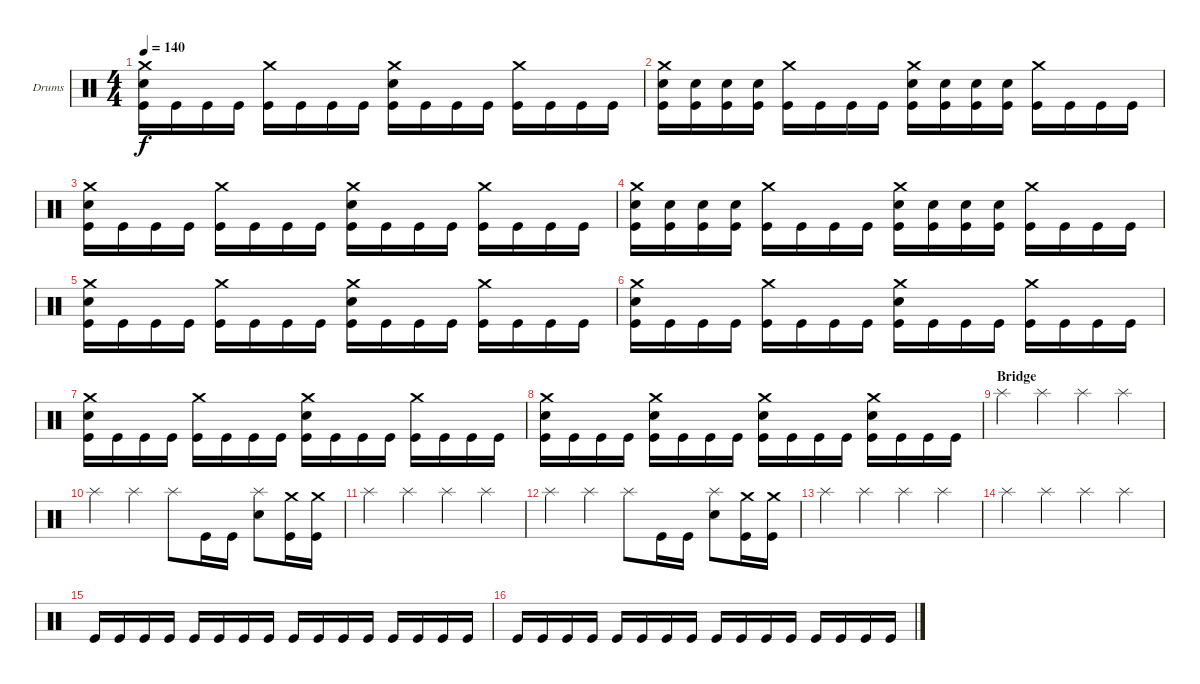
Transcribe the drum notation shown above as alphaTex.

\defaultSystemsLayout 4
\bracketExtendMode groupsimilarinstruments
\firstSystemTrackNameOrientation horizontal
\otherSystemsTrackNameOrientation horizontal
\track ("Ventor" "Drums") {instrument percussion}
\staff {score}
\articulation defaults
\ts (4 4)
\tempo 140
\clef neutral
\scale
0.5
\ks c
("Kick (hit)" "Snare (hit) 2" "Crash medium (hit)").16{dy f} "Kick (hit)".16 "Kick (hit)".16 "Kick (hit)".16 ("Kick (hit)" "Crash medium (hit)").16 "Kick (hit)".16 "Kick (hit)".16 "Kick (hit)".16 ("Kick (hit)" "Snare (hit) 2" "Crash medium (hit)").16 "Kick (hit)".16 "Kick (hit)".16 "Kick (hit)".16 ("Kick (hit)" "Crash medium (hit)").16 "Kick (hit)".16 "Kick (hit)".16 "Kick (hit)".16 |
\scale
0.5 ("Kick (hit)" "Snare (hit) 2" "Crash medium (hit)").16 ("Kick (hit)" "Snare (hit) 2").16 ("Kick (hit)" "Snare (hit) 2").16 ("Kick (hit)" "Snare (hit) 2").16 ("Kick (hit)" "Crash medium (hit)").16 "Kick (hit)".16 "Kick (hit)".16 "Kick (hit)".16 ("Kick (hit)" "Snare (hit) 2" "Crash medium (hit)").16 ("Kick (hit)" "Snare (hit) 2").16 ("Kick (hit)" "Snare (hit) 2").16 ("Kick (hit)" "Snare (hit) 2").16 ("Kick (hit)" "Crash medium (hit)").16 "Kick (hit)".16 "Kick (hit)".16 "Kick (hit)".16 |
\scale
0.5 ("Kick (hit)" "Snare (hit) 2" "Crash medium (hit)").16 "Kick (hit)".16 "Kick (hit)".16 "Kick (hit)".16 ("Kick (hit)" "Crash medium (hit)").16 "Kick (hit)".16 "Kick (hit)".16 "Kick (hit)".16 ("Kick (hit)" "Snare (hit) 2" "Crash medium (hit)").16 "Kick (hit)".16 "Kick (hit)".16 "Kick (hit)".16 ("Kick (hit)" "Crash medium (hit)").16 "Kick (hit)".16 "Kick (hit)".16 "Kick (hit)".16 |
\scale
0.5 ("Kick (hit)" "Snare (hit) 2" "Crash medium (hit)").16 ("Kick (hit)" "Snare (hit) 2").16 ("Kick (hit)" "Snare (hit) 2").16 ("Kick (hit)" "Snare (hit) 2").16 ("Kick (hit)" "Crash medium (hit)").16 "Kick (hit)".16 "Kick (hit)".16 "Kick (hit)".16 ("Kick (hit)" "Snare (hit) 2" "Crash medium (hit)").16 ("Kick (hit)" "Snare (hit) 2").16 ("Kick (hit)" "Snare (hit) 2").16 ("Kick (hit)" "Snare (hit) 2").16 ("Kick (hit)" "Crash medium (hit)").16 "Kick (hit)".16 "Kick (hit)".16 "Kick (hit)".16 |
\scale
0.5 ("Kick (hit)" "Snare (hit) 2" "Crash medium (hit)").16 "Kick (hit)".16 "Kick (hit)".16 "Kick (hit)".16 ("Kick (hit)" "Crash medium (hit)").16 "Kick (hit)".16 "Kick (hit)".16 "Kick (hit)".16 ("Kick (hit)" "Snare (hit) 2" "Crash medium (hit)").16 "Kick (hit)".16 "Kick (hit)".16 "Kick (hit)".16 ("Kick (hit)" "Crash medium (hit)").16 "Kick (hit)".16 "Kick (hit)".16 "Kick (hit)".16 |
\scale
0.5 ("Kick (hit)" "Snare (hit) 2" "Crash medium (hit)").16 "Kick (hit)".16 "Kick (hit)".16 "Kick (hit)".16 ("Kick (hit)" "Crash medium (hit)").16 "Kick (hit)".16 "Kick (hit)".16 "Kick (hit)".16 ("Kick (hit)" "Snare (hit) 2" "Crash medium (hit)").16 "Kick (hit)".16 "Kick (hit)".16 "Kick (hit)".16 ("Kick (hit)" "Crash medium (hit)").16 "Kick (hit)".16 "Kick (hit)".16 "Kick (hit)".16 |
\scale
0.5 ("Kick (hit)" "Snare (hit) 2" "Crash medium (hit)").16 "Kick (hit)".16 "Kick (hit)".16 "Kick (hit)".16 ("Kick (hit)" "Crash medium (hit)").16 "Kick (hit)".16 "Kick (hit)".16 "Kick (hit)".16 ("Kick (hit)" "Snare (hit) 2" "Crash medium (hit)").16 "Kick (hit)".16 "Kick (hit)".16 "Kick (hit)".16 ("Kick (hit)" "Crash medium (hit)").16 "Kick (hit)".16 "Kick (hit)".16 "Kick (hit)".16 |
\scale
0.5 ("Kick (hit)" "Snare (hit) 2" "Crash medium (hit)").16 "Kick (hit)".16 "Kick (hit)".16 "Kick (hit)".16 ("Kick (hit)" "Crash medium (hit)" "Snare (hit) 2").16 "Kick (hit)".16 "Kick (hit)".16 "Kick (hit)".16 ("Kick (hit)" "Snare (hit) 2" "Crash medium (hit)").16 "Kick (hit)".16 "Kick (hit)".16 "Kick (hit)".16 ("Kick (hit)" "Crash medium (hit)" "Snare (hit) 2").16 "Kick (hit)".16 "Kick (hit)".16 "Kick (hit)".16 |
\section ("" "Bridge")
\scale
0.5 "Splash (hit)".4 "Splash (hit)".4 "Splash (hit)".4 "Splash (hit)".4 |
\scale
0.5 "Splash (hit)".4 "Splash (hit)".4 "Splash (hit)".8 "Kick (hit)".16 "Kick (hit)".16 ("Splash (hit)" "Snare (hit) 2").8 ("Kick (hit)" "Crash medium (hit)").16 ("Kick (hit)" "Crash medium (hit)").16 |
\scale
0.5 "Splash (hit)".4 "Splash (hit)".4 "Splash (hit)".4 "Splash (hit)".4 |
\scale
0.5 "Splash (hit)".4 "Splash (hit)".4 "Splash (hit)".8 "Kick (hit)".16 "Kick (hit)".16 ("Splash (hit)" "Snare (hit) 2").8 ("Kick (hit)" "Crash medium (hit)").16 ("Kick (hit)" "Crash medium (hit)").16 |
\scale
0.5 "Splash (hit)".4 "Splash (hit)".4 "Splash (hit)".4 "Splash (hit)".4 |
\scale
0.5 "Splash (hit)".4 "Splash (hit)".4 "Splash (hit)".4 "Splash (hit)".4 |
\scale
0.5 "Kick (hit)".16 "Kick (hit)".16 "Kick (hit)".16 "Kick (hit)".16 "Kick (hit)".16 "Kick (hit)".16 "Kick (hit)".16 "Kick (hit)".16 "Kick (hit)".16 "Kick (hit)".16 "Kick (hit)".16 "Kick (hit)".16 "Kick (hit)".16 "Kick (hit)".16 "Kick (hit)".16 "Kick (hit)".16 |
\scale
0.5 "Kick (hit)".16 "Kick (hit)".16 "Kick (hit)".16 "Kick (hit)".16 "Kick (hit)".16 "Kick (hit)".16 "Kick (hit)".16 "Kick (hit)".16 "Kick (hit)".16 "Kick (hit)".16 "Kick (hit)".16 "Kick (hit)".16 "Kick (hit)".16 "Kick (hit)".16 "Kick (hit)".16 "Kick (hit)".16
